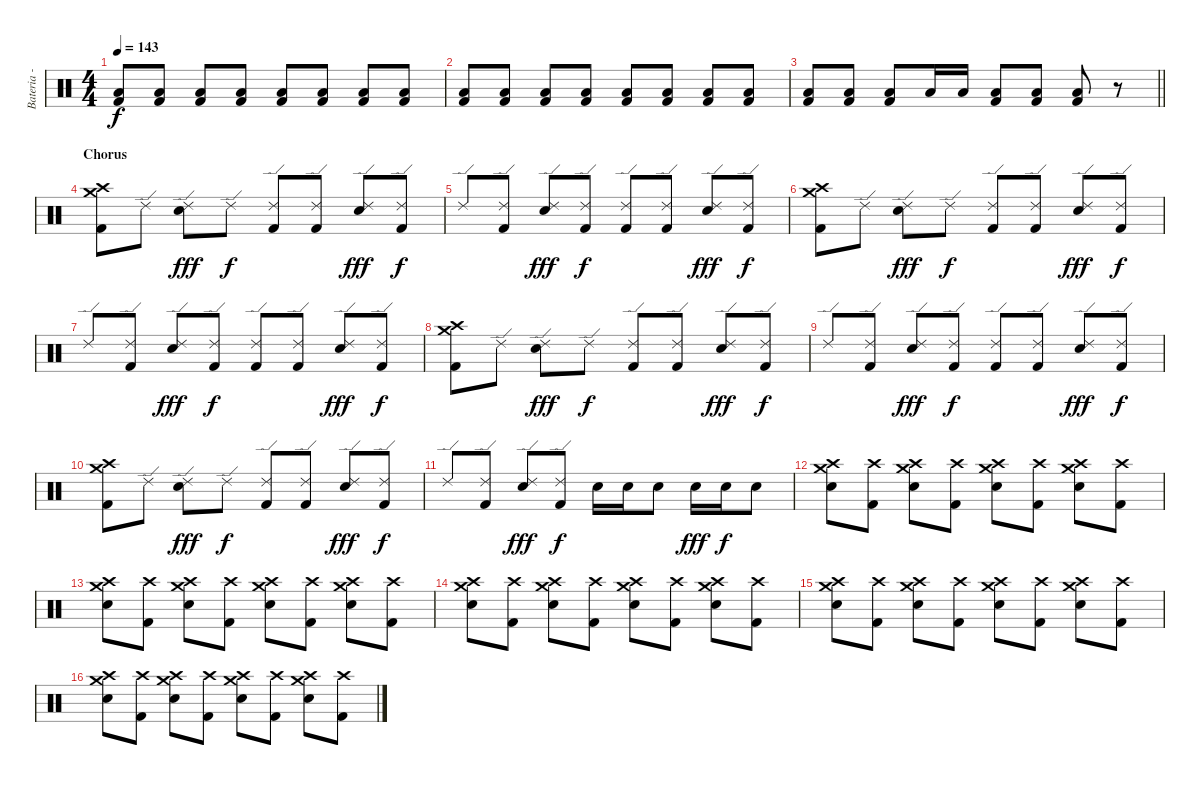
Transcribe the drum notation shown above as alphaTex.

\track ("Bateria - Larzon" "Bateria - ") {instrument percussion}
\staff {score}
\articulation defaults
\ts (4 4)
\tempo 143
\clef neutral
\ks c
("Kick (hit) 2" "Low Floor Tom (hit)").8{dy f volume 10} ("Kick (hit) 2" "Low Floor Tom (hit)").8 ("Kick (hit) 2" "Low Floor Tom (hit)").8 ("Kick (hit) 2" "Low Floor Tom (hit)").8 ("Kick (hit) 2" "Low Floor Tom (hit)").8{volume 11} ("Kick (hit) 2" "Low Floor Tom (hit)").8 ("Kick (hit) 2" "Low Floor Tom (hit)").8 ("Kick (hit) 2" "Low Floor Tom (hit)").8 |
("Kick (hit) 2" "Low Floor Tom (hit)").8{volume 12} ("Kick (hit) 2" "Low Floor Tom (hit)").8 ("Kick (hit) 2" "Low Floor Tom (hit)").8 ("Kick (hit) 2" "Low Floor Tom (hit)").8 ("Kick (hit) 2" "Low Floor Tom (hit)").8{volume 13} ("Kick (hit) 2" "Low Floor Tom (hit)").8 ("Kick (hit) 2" "Low Floor Tom (hit)").8 ("Kick (hit) 2" "Low Floor Tom (hit)").8 |
\barLineRight lightlight
("Kick (hit) 2" "Low Floor Tom (hit)").8{volume 14} ("Kick (hit) 2" "Low Floor Tom (hit)").8 ("Kick (hit) 2" "Low Floor Tom (hit)").8 "Low Floor Tom (hit)".16 "Low Floor Tom (hit)".16 ("Kick (hit) 2" "Low Floor Tom (hit)").8 ("Kick (hit) 2" "Low Floor Tom (hit)").8 ("Kick (hit) 2" "Low Floor Tom (hit)").8 r.8 |
\section ("" "Chorus")
("Kick (hit) 2" "Crash medium (hit)" "Crash high (hit)").8 "Ride (edge) 2".8 ("Electric Snare (hit)" "Ride (edge) 2").8{dy fff} "Ride (edge) 2".8{dy f} ("Kick (hit) 2" "Ride (edge) 2").8 ("Kick (hit) 2" "Ride (edge) 2").8 ("Electric Snare (hit)" "Ride (edge) 2").8{dy fff} ("Kick (hit) 2" "Ride (edge) 2").8{dy f} |
"Ride (edge) 2".8 ("Kick (hit) 2" "Ride (edge) 2").8 ("Electric Snare (hit)" "Ride (edge) 2").8{dy fff} ("Kick (hit) 2" "Ride (edge) 2").8{dy f} ("Kick (hit) 2" "Ride (edge) 2").8 ("Kick (hit) 2" "Ride (edge) 2").8 ("Electric Snare (hit)" "Ride (edge) 2").8{dy fff} ("Kick (hit) 2" "Ride (edge) 2").8{dy f} |
("Kick (hit) 2" "Crash medium (hit)" "Crash high (hit)").8 "Ride (edge) 2".8 ("Electric Snare (hit)" "Ride (edge) 2").8{dy fff} "Ride (edge) 2".8{dy f} ("Kick (hit) 2" "Ride (edge) 2").8 ("Kick (hit) 2" "Ride (edge) 2").8 ("Electric Snare (hit)" "Ride (edge) 2").8{dy fff} ("Kick (hit) 2" "Ride (edge) 2").8{dy f} |
"Ride (edge) 2".8 ("Kick (hit) 2" "Ride (edge) 2").8 ("Electric Snare (hit)" "Ride (edge) 2").8{dy fff} ("Kick (hit) 2" "Ride (edge) 2").8{dy f} ("Kick (hit) 2" "Ride (edge) 2").8 ("Kick (hit) 2" "Ride (edge) 2").8 ("Electric Snare (hit)" "Ride (edge) 2").8{dy fff} ("Kick (hit) 2" "Ride (edge) 2").8{dy f} |
("Kick (hit) 2" "Crash medium (hit)" "Crash high (hit)").8 "Ride (edge) 2".8 ("Electric Snare (hit)" "Ride (edge) 2").8{dy fff} "Ride (edge) 2".8{dy f} ("Kick (hit) 2" "Ride (edge) 2").8 ("Kick (hit) 2" "Ride (edge) 2").8 ("Electric Snare (hit)" "Ride (edge) 2").8{dy fff} ("Kick (hit) 2" "Ride (edge) 2").8{dy f} |
"Ride (edge) 2".8 ("Kick (hit) 2" "Ride (edge) 2").8 ("Electric Snare (hit)" "Ride (edge) 2").8{dy fff} ("Kick (hit) 2" "Ride (edge) 2").8{dy f} ("Kick (hit) 2" "Ride (edge) 2").8 ("Kick (hit) 2" "Ride (edge) 2").8 ("Electric Snare (hit)" "Ride (edge) 2").8{dy fff} ("Kick (hit) 2" "Ride (edge) 2").8{dy f} |
("Kick (hit) 2" "Crash medium (hit)" "Crash high (hit)").8 "Ride (edge) 2".8 ("Electric Snare (hit)" "Ride (edge) 2").8{dy fff} "Ride (edge) 2".8{dy f} ("Kick (hit) 2" "Ride (edge) 2").8 ("Kick (hit) 2" "Ride (edge) 2").8 ("Electric Snare (hit)" "Ride (edge) 2").8{dy fff} ("Kick (hit) 2" "Ride (edge) 2").8{dy f} |
"Ride (edge) 2".8 ("Kick (hit) 2" "Ride (edge) 2").8 ("Electric Snare (hit)" "Ride (edge) 2").8{dy fff} ("Kick (hit) 2" "Ride (edge) 2").8{dy f} "Electric Snare (hit)".16 "Electric Snare (hit)".16 "Electric Snare (hit)".8 "Electric Snare (hit)".16{dy fff} "Electric Snare (hit)".16{dy f} "Electric Snare (hit)".8 |
("Electric Snare (hit)" "Crash medium (hit)" "Crash high (hit)").8 ("Kick (hit) 2" "Crash high (hit)").8 ("Electric Snare (hit)" "Crash medium (hit)" "Crash high (hit)").8 ("Kick (hit) 2" "Crash high (hit)").8 ("Electric Snare (hit)" "Crash medium (hit)" "Crash high (hit)").8 ("Kick (hit) 2" "Crash high (hit)").8 ("Electric Snare (hit)" "Crash medium (hit)" "Crash high (hit)").8 ("Kick (hit) 2" "Crash high (hit)").8 |
("Electric Snare (hit)" "Crash medium (hit)" "Crash high (hit)").8 ("Kick (hit) 2" "Crash high (hit)").8 ("Electric Snare (hit)" "Crash medium (hit)" "Crash high (hit)").8 ("Kick (hit) 2" "Crash high (hit)").8 ("Electric Snare (hit)" "Crash medium (hit)" "Crash high (hit)").8 ("Kick (hit) 2" "Crash high (hit)").8 ("Electric Snare (hit)" "Crash medium (hit)" "Crash high (hit)").8 ("Kick (hit) 2" "Crash high (hit)").8 |
("Electric Snare (hit)" "Crash medium (hit)" "Crash high (hit)").8 ("Kick (hit) 2" "Crash high (hit)").8 ("Electric Snare (hit)" "Crash medium (hit)" "Crash high (hit)").8 ("Kick (hit) 2" "Crash high (hit)").8 ("Electric Snare (hit)" "Crash medium (hit)" "Crash high (hit)").8 ("Kick (hit) 2" "Crash high (hit)").8 ("Electric Snare (hit)" "Crash medium (hit)" "Crash high (hit)").8 ("Kick (hit) 2" "Crash high (hit)").8 |
("Electric Snare (hit)" "Crash medium (hit)" "Crash high (hit)").8 ("Kick (hit) 2" "Crash high (hit)").8 ("Electric Snare (hit)" "Crash medium (hit)" "Crash high (hit)").8 ("Kick (hit) 2" "Crash high (hit)").8 ("Electric Snare (hit)" "Crash medium (hit)" "Crash high (hit)").8 ("Kick (hit) 2" "Crash high (hit)").8 ("Electric Snare (hit)" "Crash medium (hit)" "Crash high (hit)").8 ("Kick (hit) 2" "Crash high (hit)").8 |
("Electric Snare (hit)" "Crash medium (hit)" "Crash high (hit)").8 ("Kick (hit) 2" "Crash high (hit)").8 ("Electric Snare (hit)" "Crash medium (hit)" "Crash high (hit)").8 ("Kick (hit) 2" "Crash high (hit)").8 ("Electric Snare (hit)" "Crash medium (hit)" "Crash high (hit)").8 ("Kick (hit) 2" "Crash high (hit)").8 ("Electric Snare (hit)" "Crash medium (hit)" "Crash high (hit)").8 ("Kick (hit) 2" "Crash high (hit)").8
